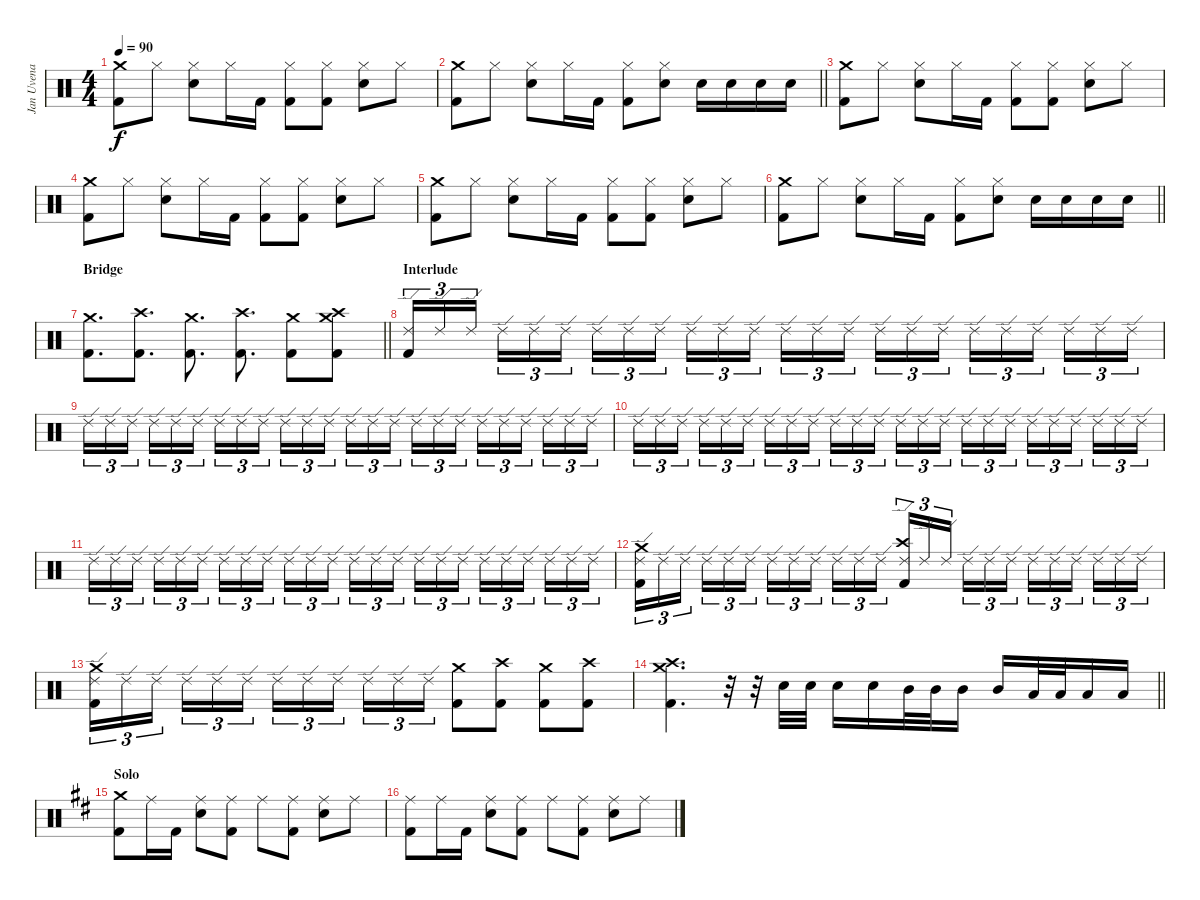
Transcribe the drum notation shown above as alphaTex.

\track ("Jan Uvena" "Jan Uvena") {instrument percussion}
\staff {score}
\articulation defaults
\ts (4 4)
\tempo 90
\clef neutral
\ks c
("Crash medium (hit)" "Kick (hit) 2").8{dy f} "Hi-Hat (closed)".8 ("Hi-Hat (closed)" "Snare (hit) 2").8 "Hi-Hat (closed)".16 "Kick (hit) 2".16 ("Hi-Hat (closed)" "Kick (hit) 2").8 ("Hi-Hat (closed)" "Kick (hit) 2").8 ("Hi-Hat (closed)" "Snare (hit) 2").8 "Hi-Hat (closed)".8 |
\barLineRight lightlight
("Crash medium (hit)" "Kick (hit) 2").8 "Hi-Hat (closed)".8 ("Hi-Hat (closed)" "Snare (hit) 2").8 "Hi-Hat (closed)".16 "Kick (hit) 2".16 ("Hi-Hat (closed)" "Kick (hit) 2").8 ("Hi-Hat (closed)" "Snare (hit) 2").8 "Snare (hit) 2".16 "Snare (hit) 2".16 "Snare (hit) 2".16 "Snare (hit) 2".16 |
("Crash medium (hit)" "Kick (hit) 2").8 "Hi-Hat (closed)".8 ("Hi-Hat (closed)" "Snare (hit) 2").8 "Hi-Hat (closed)".16 "Kick (hit) 2".16 ("Hi-Hat (closed)" "Kick (hit) 2").8 ("Hi-Hat (closed)" "Kick (hit) 2").8 ("Hi-Hat (closed)" "Snare (hit) 2").8 "Hi-Hat (closed)".8 |
("Crash medium (hit)" "Kick (hit) 2").8 "Hi-Hat (closed)".8 ("Hi-Hat (closed)" "Snare (hit) 2").8 "Hi-Hat (closed)".16 "Kick (hit) 2".16 ("Hi-Hat (closed)" "Kick (hit) 2").8 ("Hi-Hat (closed)" "Kick (hit) 2").8 ("Hi-Hat (closed)" "Snare (hit) 2").8 "Hi-Hat (closed)".8 |
("Crash medium (hit)" "Kick (hit) 2").8 "Hi-Hat (closed)".8 ("Hi-Hat (closed)" "Snare (hit) 2").8 "Hi-Hat (closed)".16 "Kick (hit) 2".16 ("Hi-Hat (closed)" "Kick (hit) 2").8 ("Hi-Hat (closed)" "Kick (hit) 2").8 ("Hi-Hat (closed)" "Snare (hit) 2").8 "Hi-Hat (closed)".8 |
\barLineRight lightlight
("Crash medium (hit)" "Kick (hit) 2").8 "Hi-Hat (closed)".8 ("Hi-Hat (closed)" "Snare (hit) 2").8 "Hi-Hat (closed)".16 "Kick (hit) 2".16 ("Hi-Hat (closed)" "Kick (hit) 2").8 ("Hi-Hat (closed)" "Snare (hit) 2").8 "Snare (hit) 2".16 "Snare (hit) 2".16 "Snare (hit) 2".16 "Snare (hit) 2".16 |
\section ("" "Bridge")
\barLineRight lightlight
("Crash medium (hit)" "Kick (hit) 2").8{d} ("Crash high (hit)" "Kick (hit) 2").8{d} ("Crash medium (hit)" "Kick (hit) 2").8{d} ("Crash high (hit)" "Kick (hit) 2").8{d} ("Crash medium (hit)" "Kick (hit) 2").8 ("Crash high (hit)" "Crash medium (hit)" "Kick (hit) 2").8 |
\section ("" "Interlude")
("Ride (edge) 2" "Kick (hit) 2").16{tu (3 2)} "Ride (edge) 2".16{tu (3 2)} "Ride (edge) 2".16{tu (3 2) beam splitsecondary} "Ride (edge) 2".16{tu (3 2)} "Ride (edge) 2".16{tu (3 2)} "Ride (edge) 2".16{tu (3 2)} "Ride (edge) 2".16{tu (3 2)} "Ride (edge) 2".16{tu (3 2)} "Ride (edge) 2".16{tu (3 2) beam splitsecondary} "Ride (edge) 2".16{tu (3 2)} "Ride (edge) 2".16{tu (3 2)} "Ride (edge) 2".16{tu (3 2)} "Ride (edge) 2".16{tu (3 2)} "Ride (edge) 2".16{tu (3 2)} "Ride (edge) 2".16{tu (3 2) beam splitsecondary} "Ride (edge) 2".16{tu (3 2)} "Ride (edge) 2".16{tu (3 2)} "Ride (edge) 2".16{tu (3 2)} "Ride (edge) 2".16{tu (3 2)} "Ride (edge) 2".16{tu (3 2)} "Ride (edge) 2".16{tu (3 2) beam splitsecondary} "Ride (edge) 2".16{tu (3 2)} "Ride (edge) 2".16{tu (3 2)} "Ride (edge) 2".16{tu (3 2)} |
"Ride (edge) 2".16{tu (3 2)} "Ride (edge) 2".16{tu (3 2)} "Ride (edge) 2".16{tu (3 2) beam splitsecondary} "Ride (edge) 2".16{tu (3 2)} "Ride (edge) 2".16{tu (3 2)} "Ride (edge) 2".16{tu (3 2)} "Ride (edge) 2".16{tu (3 2)} "Ride (edge) 2".16{tu (3 2)} "Ride (edge) 2".16{tu (3 2) beam splitsecondary} "Ride (edge) 2".16{tu (3 2)} "Ride (edge) 2".16{tu (3 2)} "Ride (edge) 2".16{tu (3 2)} "Ride (edge) 2".16{tu (3 2)} "Ride (edge) 2".16{tu (3 2)} "Ride (edge) 2".16{tu (3 2) beam splitsecondary} "Ride (edge) 2".16{tu (3 2)} "Ride (edge) 2".16{tu (3 2)} "Ride (edge) 2".16{tu (3 2)} "Ride (edge) 2".16{tu (3 2)} "Ride (edge) 2".16{tu (3 2)} "Ride (edge) 2".16{tu (3 2) beam splitsecondary} "Ride (edge) 2".16{tu (3 2)} "Ride (edge) 2".16{tu (3 2)} "Ride (edge) 2".16{tu (3 2)} |
"Ride (edge) 2".16{tu (3 2)} "Ride (edge) 2".16{tu (3 2)} "Ride (edge) 2".16{tu (3 2) beam splitsecondary} "Ride (edge) 2".16{tu (3 2)} "Ride (edge) 2".16{tu (3 2)} "Ride (edge) 2".16{tu (3 2)} "Ride (edge) 2".16{tu (3 2)} "Ride (edge) 2".16{tu (3 2)} "Ride (edge) 2".16{tu (3 2) beam splitsecondary} "Ride (edge) 2".16{tu (3 2)} "Ride (edge) 2".16{tu (3 2)} "Ride (edge) 2".16{tu (3 2)} "Ride (edge) 2".16{tu (3 2)} "Ride (edge) 2".16{tu (3 2)} "Ride (edge) 2".16{tu (3 2) beam splitsecondary} "Ride (edge) 2".16{tu (3 2)} "Ride (edge) 2".16{tu (3 2)} "Ride (edge) 2".16{tu (3 2)} "Ride (edge) 2".16{tu (3 2)} "Ride (edge) 2".16{tu (3 2)} "Ride (edge) 2".16{tu (3 2) beam splitsecondary} "Ride (edge) 2".16{tu (3 2)} "Ride (edge) 2".16{tu (3 2)} "Ride (edge) 2".16{tu (3 2)} |
"Ride (edge) 2".16{tu (3 2)} "Ride (edge) 2".16{tu (3 2)} "Ride (edge) 2".16{tu (3 2) beam splitsecondary} "Ride (edge) 2".16{tu (3 2)} "Ride (edge) 2".16{tu (3 2)} "Ride (edge) 2".16{tu (3 2)} "Ride (edge) 2".16{tu (3 2)} "Ride (edge) 2".16{tu (3 2)} "Ride (edge) 2".16{tu (3 2) beam splitsecondary} "Ride (edge) 2".16{tu (3 2)} "Ride (edge) 2".16{tu (3 2)} "Ride (edge) 2".16{tu (3 2)} "Ride (edge) 2".16{tu (3 2)} "Ride (edge) 2".16{tu (3 2)} "Ride (edge) 2".16{tu (3 2) beam splitsecondary} "Ride (edge) 2".16{tu (3 2)} "Ride (edge) 2".16{tu (3 2)} "Ride (edge) 2".16{tu (3 2)} "Ride (edge) 2".16{tu (3 2)} "Ride (edge) 2".16{tu (3 2)} "Ride (edge) 2".16{tu (3 2) beam splitsecondary} "Ride (edge) 2".16{tu (3 2)} "Ride (edge) 2".16{tu (3 2)} "Ride (edge) 2".16{tu (3 2)} |
("Crash medium (hit)" "Ride (edge) 2" "Kick (hit) 2").16{tu (3 2)} "Ride (edge) 2".16{tu (3 2)} "Ride (edge) 2".16{tu (3 2) beam splitsecondary} "Ride (edge) 2".16{tu (3 2)} "Ride (edge) 2".16{tu (3 2)} "Ride (edge) 2".16{tu (3 2)} "Ride (edge) 2".16{tu (3 2)} "Ride (edge) 2".16{tu (3 2)} "Ride (edge) 2".16{tu (3 2) beam splitsecondary} "Ride (edge) 2".16{tu (3 2)} "Ride (edge) 2".16{tu (3 2)} "Ride (edge) 2".16{tu (3 2)} ("Crash high (hit)" "Ride (edge) 2" "Kick (hit) 2").16{tu (3 2)} "Ride (edge) 2".16{tu (3 2)} "Ride (edge) 2".16{tu (3 2) beam splitsecondary} "Ride (edge) 2".16{tu (3 2)} "Ride (edge) 2".16{tu (3 2)} "Ride (edge) 2".16{tu (3 2)} "Ride (edge) 2".16{tu (3 2)} "Ride (edge) 2".16{tu (3 2)} "Ride (edge) 2".16{tu (3 2) beam splitsecondary} "Ride (edge) 2".16{tu (3 2)} "Ride (edge) 2".16{tu (3 2)} "Ride (edge) 2".16{tu (3 2)} |
("Crash medium (hit)" "Ride (edge) 2" "Kick (hit) 2").16{tu (3 2)} "Ride (edge) 2".16{tu (3 2)} "Ride (edge) 2".16{tu (3 2) beam splitsecondary} "Ride (edge) 2".16{tu (3 2)} "Ride (edge) 2".16{tu (3 2)} "Ride (edge) 2".16{tu (3 2)} "Ride (edge) 2".16{tu (3 2)} "Ride (edge) 2".16{tu (3 2)} "Ride (edge) 2".16{tu (3 2) beam splitsecondary} "Ride (edge) 2".16{tu (3 2)} "Ride (edge) 2".16{tu (3 2)} "Ride (edge) 2".16{tu (3 2)} ("Crash medium (hit)" "Kick (hit) 2").8 ("Crash high (hit)" "Kick (hit) 2").8 ("Crash medium (hit)" "Kick (hit) 2").8 ("Crash high (hit)" "Kick (hit) 2").8 |
\barLineRight lightlight
("Crash medium (hit)" "Crash high (hit)" "Kick (hit) 2").4{d} r.32 r.32 "Snare (hit) 2".32 "Snare (hit) 2".32 "Snare (hit) 2".16 "Snare (hit) 2".16 "Mid Tom (hit)".32 "Mid Tom (hit)".32 "Mid Tom (hit)".16 "Mid Tom (hit)".16 "Low Tom (hit)".32 "Low Tom (hit)".32 "Low Tom (hit)".16 "Low Tom (hit)".16 |
\section ("" "Solo")
\ks d
("Crash medium (hit)" "Kick (hit) 2").8 "Ride (middle)".16 "Kick (hit) 2".16 ("Ride (middle)" "Snare (hit) 2").8 ("Ride (middle)" "Kick (hit) 2").8 "Ride (middle)".8 ("Ride (middle)" "Kick (hit) 2").8 ("Ride (middle)" "Snare (hit) 2").8 "Ride (middle)".8 |
("Ride (middle)" "Kick (hit) 2").8 "Ride (middle)".16 "Kick (hit) 2".16 ("Ride (middle)" "Snare (hit) 2").8 ("Ride (middle)" "Kick (hit) 2").8 "Ride (middle)".8 ("Ride (middle)" "Kick (hit) 2").8 ("Ride (middle)" "Snare (hit) 2").8 "Ride (middle)".8
